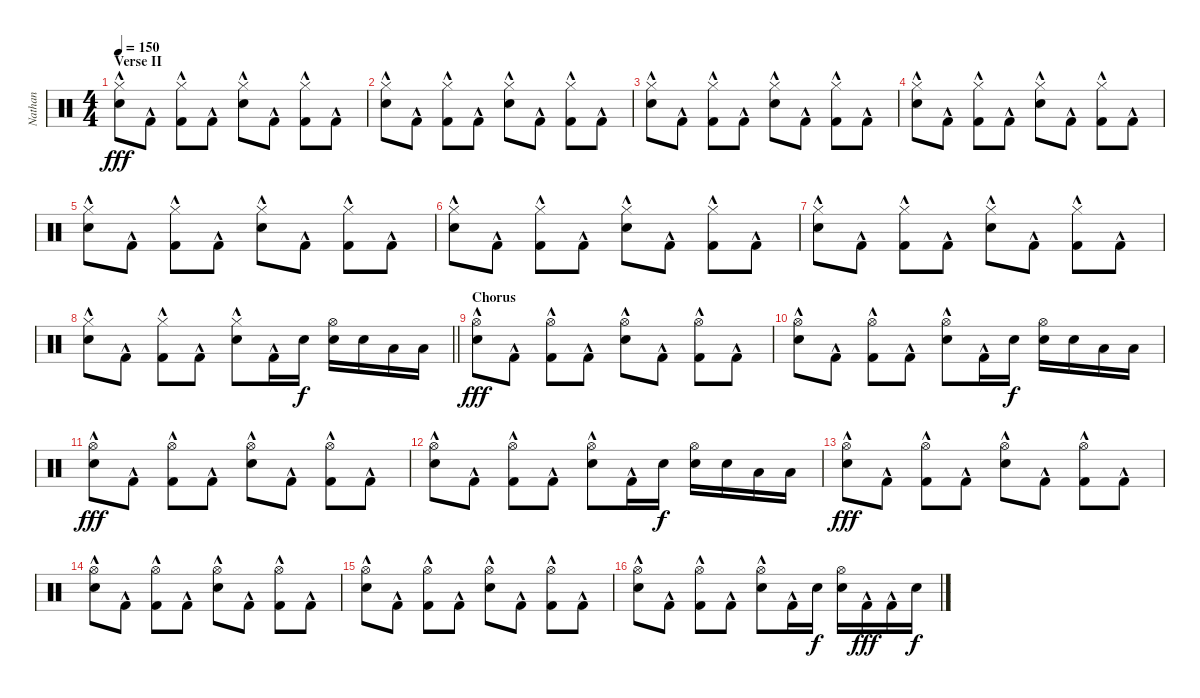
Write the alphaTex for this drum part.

\track ("Nathan" "Nathan") {instrument percussion}
\staff {score}
\articulation defaults
\ts (4 4)
\section ("" "Verse II")
\tempo 150
\clef neutral
\ks c
("Hi-Hat (closed)" "Snare (hit) 2"{hac}).8{dy fff} "Kick (hit) 2"{hac}.8 ("Hi-Hat (closed)" "Kick (hit) 2"{hac}).8 "Kick (hit) 2"{hac}.8 ("Hi-Hat (closed)" "Snare (hit) 2"{hac}).8 "Kick (hit) 2"{hac}.8 ("Hi-Hat (closed)" "Kick (hit) 2"{hac}).8 "Kick (hit) 2"{hac}.8 |
("Hi-Hat (closed)" "Snare (hit) 2"{hac}).8 "Kick (hit) 2"{hac}.8 ("Hi-Hat (closed)" "Kick (hit) 2"{hac}).8 "Kick (hit) 2"{hac}.8 ("Hi-Hat (closed)" "Snare (hit) 2"{hac}).8 "Kick (hit) 2"{hac}.8 ("Hi-Hat (closed)" "Kick (hit) 2"{hac}).8 "Kick (hit) 2"{hac}.8 |
("Hi-Hat (closed)" "Snare (hit) 2"{hac}).8 "Kick (hit) 2"{hac}.8 ("Hi-Hat (closed)" "Kick (hit) 2"{hac}).8 "Kick (hit) 2"{hac}.8 ("Hi-Hat (closed)" "Snare (hit) 2"{hac}).8 "Kick (hit) 2"{hac}.8 ("Hi-Hat (closed)" "Kick (hit) 2"{hac}).8 "Kick (hit) 2"{hac}.8 |
("Hi-Hat (closed)" "Snare (hit) 2"{hac}).8 "Kick (hit) 2"{hac}.8 ("Hi-Hat (closed)" "Kick (hit) 2"{hac}).8 "Kick (hit) 2"{hac}.8 ("Hi-Hat (closed)" "Snare (hit) 2"{hac}).8 "Kick (hit) 2"{hac}.8 ("Hi-Hat (closed)" "Kick (hit) 2"{hac}).8 "Kick (hit) 2"{hac}.8 |
("Hi-Hat (closed)" "Snare (hit) 2"{hac}).8 "Kick (hit) 2"{hac}.8 ("Hi-Hat (closed)" "Kick (hit) 2"{hac}).8 "Kick (hit) 2"{hac}.8 ("Hi-Hat (closed)" "Snare (hit) 2"{hac}).8 "Kick (hit) 2"{hac}.8 ("Hi-Hat (closed)" "Kick (hit) 2"{hac}).8 "Kick (hit) 2"{hac}.8 |
("Hi-Hat (closed)" "Snare (hit) 2"{hac}).8 "Kick (hit) 2"{hac}.8 ("Hi-Hat (closed)" "Kick (hit) 2"{hac}).8 "Kick (hit) 2"{hac}.8 ("Hi-Hat (closed)" "Snare (hit) 2"{hac}).8 "Kick (hit) 2"{hac}.8 ("Hi-Hat (closed)" "Kick (hit) 2"{hac}).8 "Kick (hit) 2"{hac}.8 |
("Hi-Hat (closed)" "Snare (hit) 2"{hac}).8 "Kick (hit) 2"{hac}.8 ("Hi-Hat (closed)" "Kick (hit) 2"{hac}).8 "Kick (hit) 2"{hac}.8 ("Hi-Hat (closed)" "Snare (hit) 2"{hac}).8 "Kick (hit) 2"{hac}.8 ("Hi-Hat (closed)" "Kick (hit) 2"{hac}).8 "Kick (hit) 2"{hac}.8 |
\barLineRight lightlight
("Hi-Hat (closed)" "Snare (hit) 2"{hac}).8 "Kick (hit) 2"{hac}.8 ("Hi-Hat (closed)" "Kick (hit) 2"{hac}).8 "Kick (hit) 2"{hac}.8 ("Hi-Hat (closed)" "Snare (hit) 2"{hac}).8 "Kick (hit) 2"{hac}.16 "Snare (hit) 2".16{dy f} ("Hi-Hat (open)" "Snare (hit) 2").16 "Snare (hit) 2".16 "Low Tom (hit)".16 "Low Tom (hit)".16 |
\section ("" "Chorus")
("Hi-Hat (open)" "Snare (hit) 2"{hac}).8{dy fff} "Kick (hit) 2"{hac}.8 ("Hi-Hat (open)" "Kick (hit) 2"{hac}).8 "Kick (hit) 2"{hac}.8 ("Hi-Hat (open)" "Snare (hit) 2"{hac}).8 "Kick (hit) 2"{hac}.8 ("Hi-Hat (open)" "Kick (hit) 2"{hac}).8 "Kick (hit) 2"{hac}.8 |
("Hi-Hat (open)" "Snare (hit) 2"{hac}).8 "Kick (hit) 2"{hac}.8 ("Hi-Hat (open)" "Kick (hit) 2"{hac}).8 "Kick (hit) 2"{hac}.8 ("Hi-Hat (open)" "Snare (hit) 2"{hac}).8 "Kick (hit) 2"{hac}.16 "Snare (hit) 2".16{dy f} ("Hi-Hat (open)" "Snare (hit) 2").16 "Snare (hit) 2".16 "Low Tom (hit)".16 "Low Tom (hit)".16 |
("Hi-Hat (open)" "Snare (hit) 2"{hac}).8{dy fff} "Kick (hit) 2"{hac}.8 ("Hi-Hat (open)" "Kick (hit) 2"{hac}).8 "Kick (hit) 2"{hac}.8 ("Hi-Hat (open)" "Snare (hit) 2"{hac}).8 "Kick (hit) 2"{hac}.8 ("Hi-Hat (open)" "Kick (hit) 2"{hac}).8 "Kick (hit) 2"{hac}.8 |
("Hi-Hat (open)" "Snare (hit) 2"{hac}).8 "Kick (hit) 2"{hac}.8 ("Hi-Hat (open)" "Kick (hit) 2"{hac}).8 "Kick (hit) 2"{hac}.8 ("Hi-Hat (open)" "Snare (hit) 2"{hac}).8 "Kick (hit) 2"{hac}.16 "Snare (hit) 2".16{dy f} ("Hi-Hat (open)" "Snare (hit) 2").16 "Snare (hit) 2".16 "Low Tom (hit)".16 "Low Tom (hit)".16 |
("Hi-Hat (open)" "Snare (hit) 2"{hac}).8{dy fff} "Kick (hit) 2"{hac}.8 ("Hi-Hat (open)" "Kick (hit) 2"{hac}).8 "Kick (hit) 2"{hac}.8 ("Hi-Hat (open)" "Snare (hit) 2"{hac}).8 "Kick (hit) 2"{hac}.8 ("Hi-Hat (open)" "Kick (hit) 2"{hac}).8 "Kick (hit) 2"{hac}.8 |
("Hi-Hat (open)" "Snare (hit) 2"{hac}).8 "Kick (hit) 2"{hac}.8 ("Hi-Hat (open)" "Kick (hit) 2"{hac}).8 "Kick (hit) 2"{hac}.8 ("Hi-Hat (open)" "Snare (hit) 2"{hac}).8 "Kick (hit) 2"{hac}.8 ("Hi-Hat (open)" "Kick (hit) 2"{hac}).8 "Kick (hit) 2"{hac}.8 |
("Hi-Hat (open)" "Snare (hit) 2"{hac}).8 "Kick (hit) 2"{hac}.8 ("Hi-Hat (open)" "Kick (hit) 2"{hac}).8 "Kick (hit) 2"{hac}.8 ("Hi-Hat (open)" "Snare (hit) 2"{hac}).8 "Kick (hit) 2"{hac}.8 ("Hi-Hat (open)" "Kick (hit) 2"{hac}).8 "Kick (hit) 2"{hac}.8 |
("Hi-Hat (open)" "Snare (hit) 2"{hac}).8 "Kick (hit) 2"{hac}.8 ("Hi-Hat (open)" "Kick (hit) 2"{hac}).8 "Kick (hit) 2"{hac}.8 ("Hi-Hat (open)" "Snare (hit) 2"{hac}).8 "Kick (hit) 2"{hac}.16 "Snare (hit) 2".16{dy f} ("Hi-Hat (open)" "Snare (hit) 2").16 "Kick (hit) 2"{hac}.16{dy fff} "Kick (hit) 2"{hac}.16 "Snare (hit) 2".16{dy f}
